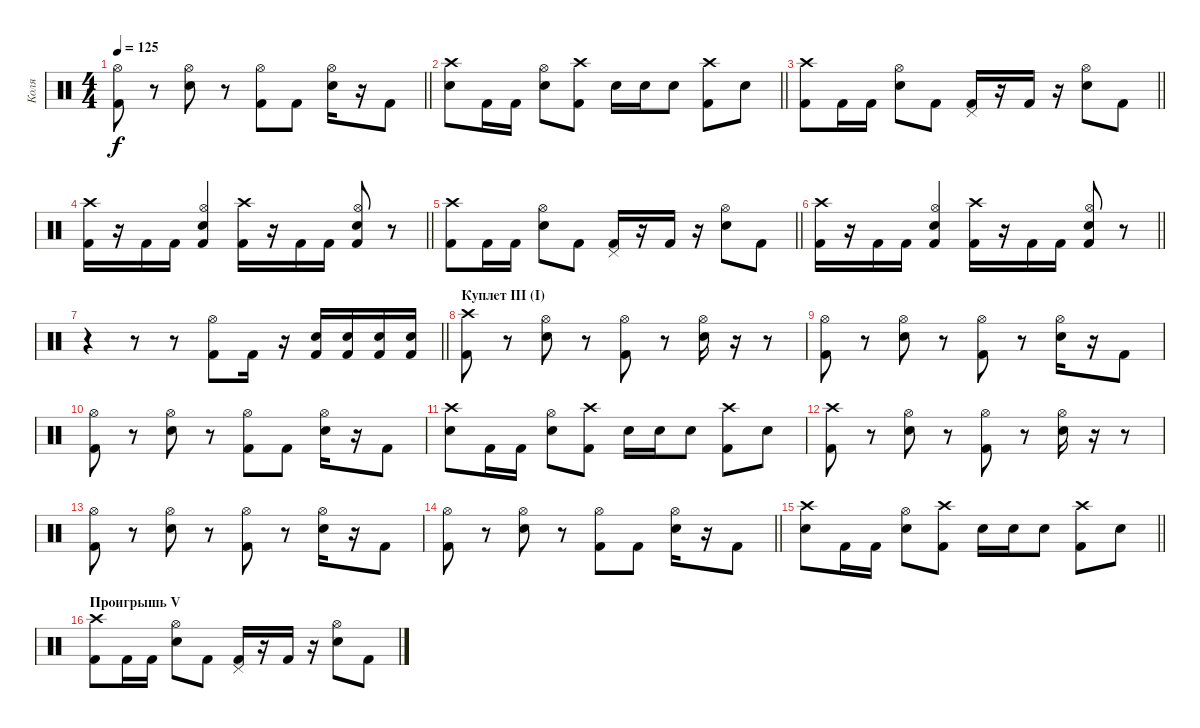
\track ("Коля" "Коля") {instrument percussion}
\staff {score}
\articulation defaults
\ts (4 4)
\tempo 125
\clef neutral
\barLineRight lightlight
\ks c
("Kick (hit) 2" "Hi-Hat (open)").8{dy f} r.8 ("Electric Snare (hit)" "Hi-Hat (open)").8 r.8 ("Kick (hit) 2" "Hi-Hat (open)").8 "Kick (hit) 2".8 ("Electric Snare (hit)" "Hi-Hat (open)").16 r.16 "Kick (hit) 2".8 |
\barLineRight lightlight
("Electric Snare (hit)" "Crash high (hit)").8 "Kick (hit) 2".16 "Kick (hit) 2".16 ("Electric Snare (hit)" "Hi-Hat (open)").8 ("Kick (hit) 2" "Crash high (hit)").8 "Electric Snare (hit)".16 "Electric Snare (hit)".16 "Electric Snare (hit)".8 ("Kick (hit) 2" "Crash high (hit)").8 "Electric Snare (hit)".8 |
\barLineRight lightlight
("Kick (hit) 2" "Crash high (hit)").8 "Kick (hit) 2".16 "Kick (hit) 2".16 ("Electric Snare (hit)" "Hi-Hat (open)").8 "Kick (hit) 2".8 ("Kick (hit) 2" "Pedal Hi-Hat (hit)").16 r.16 "Kick (hit) 2".16 r.16 ("Electric Snare (hit)" "Hi-Hat (open)").8 "Kick (hit) 2".8 |
\barLineRight lightlight
("Kick (hit) 2" "Crash high (hit)").16 r.16 "Kick (hit) 2".16 "Kick (hit) 2".16 ("Kick (hit) 2" "Electric Snare (hit)" "Hi-Hat (open)").4 ("Kick (hit) 2" "Crash high (hit)").16 r.16 "Kick (hit) 2".16 "Kick (hit) 2".16 ("Kick (hit) 2" "Electric Snare (hit)" "Hi-Hat (open)").8 r.8 |
\barLineRight lightlight
("Kick (hit) 2" "Crash high (hit)").8 "Kick (hit) 2".16 "Kick (hit) 2".16 ("Electric Snare (hit)" "Hi-Hat (open)").8 "Kick (hit) 2".8 ("Kick (hit) 2" "Pedal Hi-Hat (hit)").16 r.16 "Kick (hit) 2".16 r.16 ("Electric Snare (hit)" "Hi-Hat (open)").8 "Kick (hit) 2".8 |
\barLineRight lightlight
("Kick (hit) 2" "Crash high (hit)").16 r.16 "Kick (hit) 2".16 "Kick (hit) 2".16 ("Kick (hit) 2" "Electric Snare (hit)" "Hi-Hat (open)").4 ("Kick (hit) 2" "Crash high (hit)").16 r.16 "Kick (hit) 2".16 "Kick (hit) 2".16 ("Kick (hit) 2" "Electric Snare (hit)" "Hi-Hat (open)").8 r.8 |
\barLineRight lightlight
r.4 r.8 r.8 ("Kick (hit) 2" "Hi-Hat (open)").8 "Kick (hit) 2".16 r.16 ("Kick (hit) 2" "Electric Snare (hit)").16 ("Kick (hit) 2" "Electric Snare (hit)").16 ("Kick (hit) 2" "Electric Snare (hit)").16 ("Kick (hit) 2" "Electric Snare (hit)").16 |
\section ("" "Куплет III (I)")
("Kick (hit) 2" "Crash high (hit)").8 r.8 ("Electric Snare (hit)" "Hi-Hat (open)").8 r.8 ("Kick (hit) 2" "Hi-Hat (open)").8 r.8 ("Electric Snare (hit)" "Hi-Hat (open)").16 r.16 r.8 |
("Kick (hit) 2" "Hi-Hat (open)").8 r.8 ("Electric Snare (hit)" "Hi-Hat (open)").8 r.8 ("Kick (hit) 2" "Hi-Hat (open)").8 r.8 ("Electric Snare (hit)" "Hi-Hat (open)").16 r.16 "Kick (hit) 2".8 |
("Kick (hit) 2" "Hi-Hat (open)").8 r.8 ("Electric Snare (hit)" "Hi-Hat (open)").8 r.8 ("Kick (hit) 2" "Hi-Hat (open)").8 "Kick (hit) 2".8 ("Electric Snare (hit)" "Hi-Hat (open)").16 r.16 "Kick (hit) 2".8 |
("Electric Snare (hit)" "Crash high (hit)").8 "Kick (hit) 2".16 "Kick (hit) 2".16 ("Electric Snare (hit)" "Hi-Hat (open)").8 ("Kick (hit) 2" "Crash high (hit)").8 "Electric Snare (hit)".16 "Electric Snare (hit)".16 "Electric Snare (hit)".8 ("Kick (hit) 2" "Crash high (hit)").8 "Electric Snare (hit)".8 |
("Kick (hit) 2" "Crash high (hit)").8 r.8 ("Electric Snare (hit)" "Hi-Hat (open)").8 r.8 ("Kick (hit) 2" "Hi-Hat (open)").8 r.8 ("Electric Snare (hit)" "Hi-Hat (open)").16 r.16 r.8 |
("Kick (hit) 2" "Hi-Hat (open)").8 r.8 ("Electric Snare (hit)" "Hi-Hat (open)").8 r.8 ("Kick (hit) 2" "Hi-Hat (open)").8 r.8 ("Electric Snare (hit)" "Hi-Hat (open)").16 r.16 "Kick (hit) 2".8 |
\barLineRight lightlight
("Kick (hit) 2" "Hi-Hat (open)").8 r.8 ("Electric Snare (hit)" "Hi-Hat (open)").8 r.8 ("Kick (hit) 2" "Hi-Hat (open)").8 "Kick (hit) 2".8 ("Electric Snare (hit)" "Hi-Hat (open)").16 r.16 "Kick (hit) 2".8 |
\barLineRight lightlight
("Electric Snare (hit)" "Crash high (hit)").8 "Kick (hit) 2".16 "Kick (hit) 2".16 ("Electric Snare (hit)" "Hi-Hat (open)").8 ("Kick (hit) 2" "Crash high (hit)").8 "Electric Snare (hit)".16 "Electric Snare (hit)".16 "Electric Snare (hit)".8 ("Kick (hit) 2" "Crash high (hit)").8 "Electric Snare (hit)".8 |
\section ("" "Проигрышь V")
("Kick (hit) 2" "Crash high (hit)").8 "Kick (hit) 2".16 "Kick (hit) 2".16 ("Electric Snare (hit)" "Hi-Hat (open)").8 "Kick (hit) 2".8 ("Kick (hit) 2" "Pedal Hi-Hat (hit)").16 r.16 "Kick (hit) 2".16 r.16 ("Electric Snare (hit)" "Hi-Hat (open)").8 "Kick (hit) 2".8
